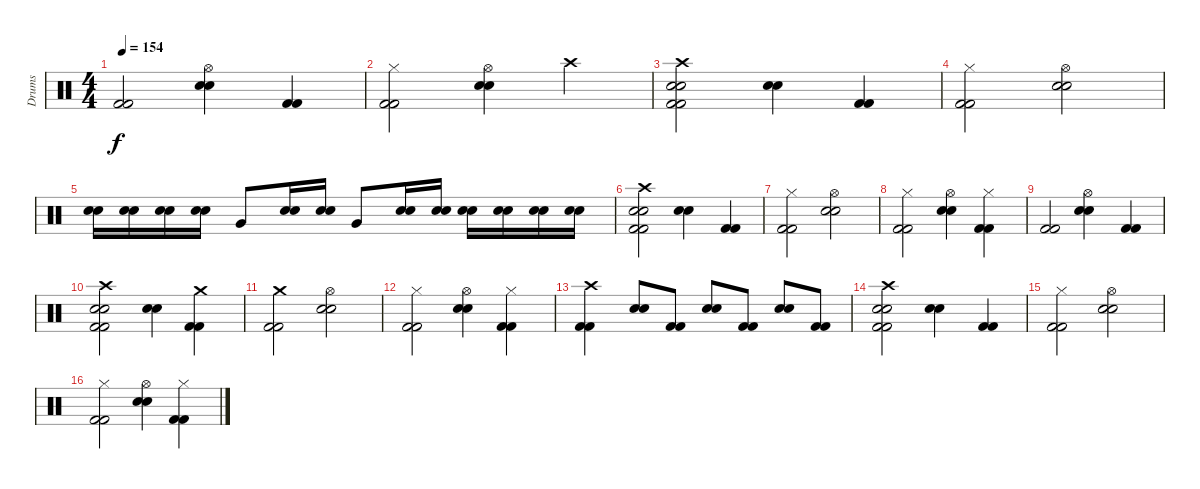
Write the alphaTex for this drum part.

\track ("Drums" "Drums") {instrument percussion}
\staff {score}
\articulation defaults
\ts (4 4)
\tempo 154
\clef neutral
\ks c
("Kick (hit) 2" "Kick (hit) 2").2{dy f} ("Hi-Hat (open)" "Snare (hit) 2" "Snare (hit) 2").4 ("Kick (hit) 2" "Kick (hit) 2").4 |
("Hi-Hat (closed)" "Kick (hit) 2" "Kick (hit) 2").2 ("Hi-Hat (open)" "Snare (hit) 2" "Snare (hit) 2").4 "Crash high (hit)".4 |
("Crash high (hit)" "Snare (hit) 2" "Snare (hit) 2" "Kick (hit) 2" "Kick (hit) 2").2 ("Snare (hit) 2" "Snare (hit) 2").4 ("Kick (hit) 2" "Kick (hit) 2").4 |
("Hi-Hat (closed)" "Kick (hit) 2" "Kick (hit) 2").2 ("Hi-Hat (open)" "Snare (hit) 2" "Snare (hit) 2").2 |
("Snare (hit) 2" "Snare (hit) 2").16 ("Snare (hit) 2" "Snare (hit) 2").16 ("Snare (hit) 2" "Snare (hit) 2").16 ("Snare (hit) 2" "Snare (hit) 2").16 "Very Low Tom (hit)".8 ("Snare (hit) 2" "Snare (hit) 2").16 ("Snare (hit) 2" "Snare (hit) 2").16 "Very Low Tom (hit)".8 ("Snare (hit) 2" "Snare (hit) 2").16 ("Snare (hit) 2" "Snare (hit) 2").16 ("Snare (hit) 2" "Snare (hit) 2").16 ("Snare (hit) 2" "Snare (hit) 2").16 ("Snare (hit) 2" "Snare (hit) 2").16 ("Snare (hit) 2" "Snare (hit) 2").16 |
("Crash high (hit)" "Snare (hit) 2" "Snare (hit) 2" "Kick (hit) 2" "Kick (hit) 2").2 ("Snare (hit) 2" "Snare (hit) 2").4 ("Kick (hit) 2" "Kick (hit) 2").4 |
("Hi-Hat (closed)" "Kick (hit) 2" "Kick (hit) 2").2 ("Hi-Hat (open)" "Snare (hit) 2" "Snare (hit) 2").2 |
("Hi-Hat (closed)" "Kick (hit) 2" "Kick (hit) 2").2 ("Hi-Hat (open)" "Snare (hit) 2" "Snare (hit) 2").4 ("Hi-Hat (closed)" "Kick (hit) 2" "Kick (hit) 2").4 |
("Kick (hit) 2" "Kick (hit) 2").2 ("Hi-Hat (open)" "Snare (hit) 2" "Snare (hit) 2").4 ("Kick (hit) 2" "Kick (hit) 2").4 |
("Crash high (hit)" "Snare (hit) 2" "Snare (hit) 2" "Kick (hit) 2" "Kick (hit) 2").2 ("Snare (hit) 2" "Snare (hit) 2").4 ("Crash medium (hit)" "Kick (hit) 2" "Kick (hit) 2").4 |
("Crash medium (hit)" "Kick (hit) 2" "Kick (hit) 2").2 ("Hi-Hat (open)" "Snare (hit) 2" "Snare (hit) 2").2 |
("Hi-Hat (closed)" "Kick (hit) 2" "Kick (hit) 2").2 ("Hi-Hat (open)" "Snare (hit) 2" "Snare (hit) 2").4 ("Hi-Hat (closed)" "Kick (hit) 2" "Kick (hit) 2").4 |
("Crash high (hit)" "Kick (hit) 2" "Kick (hit) 2").4 ("Snare (hit) 2" "Snare (hit) 2").8 ("Kick (hit) 2" "Kick (hit) 2").8 ("Snare (hit) 2" "Snare (hit) 2").8 ("Kick (hit) 2" "Kick (hit) 2").8 ("Snare (hit) 2" "Snare (hit) 2").8 ("Kick (hit) 2" "Kick (hit) 2").8 |
\section ("" "")
("Crash high (hit)" "Snare (hit) 2" "Snare (hit) 2" "Kick (hit) 2" "Kick (hit) 2").2 ("Snare (hit) 2" "Snare (hit) 2").4 ("Kick (hit) 2" "Kick (hit) 2").4 |
("Hi-Hat (closed)" "Kick (hit) 2" "Kick (hit) 2").2 ("Hi-Hat (open)" "Snare (hit) 2" "Snare (hit) 2").2 |
("Hi-Hat (closed)" "Kick (hit) 2" "Kick (hit) 2").2 ("Hi-Hat (open)" "Snare (hit) 2" "Snare (hit) 2").4 ("Hi-Hat (closed)" "Kick (hit) 2" "Kick (hit) 2").4
